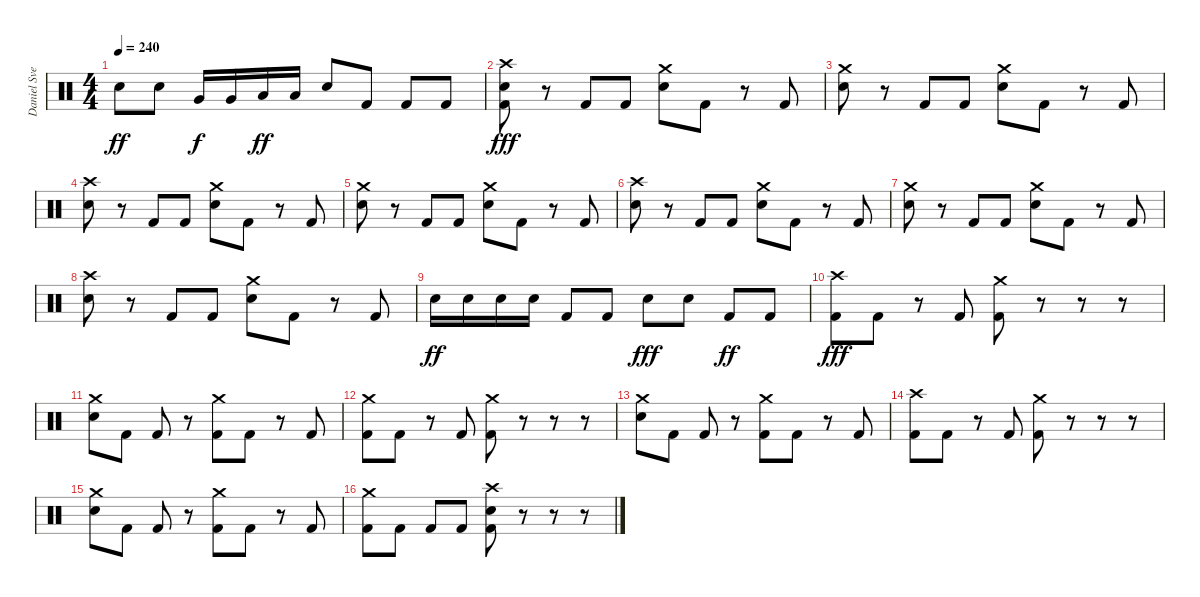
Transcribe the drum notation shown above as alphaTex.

\track ("Daniel Svensson" "Daniel Sve") {instrument percussion}
\staff {score}
\articulation defaults
\ts (4 4)
\tempo 240
\clef neutral
\ks c "Electric Snare (hit)".8{dy ff} "Electric Snare (hit)".8 "Very Low Tom (hit)".16{dy f} "Very Low Tom (hit)".16 "Low Floor Tom (hit)".16{dy ff} "Low Floor Tom (hit)".16 "Electric Snare (hit)".8 "Kick (hit) 2".8 "Kick (hit) 2".8 "Kick (hit) 2".8
|
("Crash high (hit)" "Electric Snare (hit)" "Kick (hit) 2").8{dy fff} r.8 "Kick (hit) 2".8 "Kick (hit) 2".8 ("Crash medium (hit)" "Electric Snare (hit)").8 "Kick (hit) 2".8 r.8 "Kick (hit) 2".8 |
("Crash medium (hit)" "Electric Snare (hit)").8 r.8 "Kick (hit) 2".8 "Kick (hit) 2".8 ("Crash medium (hit)" "Electric Snare (hit)").8 "Kick (hit) 2".8 r.8 "Kick (hit) 2".8 |
("Crash high (hit)" "Electric Snare (hit)").8 r.8 "Kick (hit) 2".8 "Kick (hit) 2".8 ("Crash medium (hit)" "Electric Snare (hit)").8 "Kick (hit) 2".8 r.8 "Kick (hit) 2".8 |
("Crash medium (hit)" "Electric Snare (hit)").8 r.8 "Kick (hit) 2".8 "Kick (hit) 2".8 ("Crash medium (hit)" "Electric Snare (hit)").8 "Kick (hit) 2".8 r.8 "Kick (hit) 2".8 |
("Crash high (hit)" "Electric Snare (hit)").8 r.8 "Kick (hit) 2".8 "Kick (hit) 2".8 ("Crash medium (hit)" "Electric Snare (hit)").8 "Kick (hit) 2".8 r.8 "Kick (hit) 2".8 |
("Crash medium (hit)" "Electric Snare (hit)").8 r.8 "Kick (hit) 2".8 "Kick (hit) 2".8 ("Crash medium (hit)" "Electric Snare (hit)").8 "Kick (hit) 2".8 r.8 "Kick (hit) 2".8 |
("Crash high (hit)" "Electric Snare (hit)").8 r.8 "Kick (hit) 2".8 "Kick (hit) 2".8 ("Crash medium (hit)" "Electric Snare (hit)").8 "Kick (hit) 2".8 r.8 "Kick (hit) 2".8 |
"Electric Snare (hit)".16{dy ff} "Electric Snare (hit)".16 "Electric Snare (hit)".16 "Electric Snare (hit)".16 "Kick (hit) 2".8 "Kick (hit) 2".8 "Electric Snare (hit)".8{dy fff} "Electric Snare (hit)".8 "Kick (hit) 2".8{dy ff} "Kick (hit) 2".8 |
("Crash high (hit)" "Kick (hit) 2").8{dy fff} "Kick (hit) 2".8 r.8 "Kick (hit) 2".8 ("Crash medium (hit)" "Kick (hit) 2").8 r.8 r.8 r.8 |
("Crash medium (hit)" "Electric Snare (hit)").8 "Kick (hit) 2".8 "Kick (hit) 2".8 r.8 ("Crash medium (hit)" "Kick (hit) 2").8 "Kick (hit) 2".8 r.8 "Kick (hit) 2".8 |
("Crash medium (hit)" "Kick (hit) 2").8 "Kick (hit) 2".8 r.8 "Kick (hit) 2".8 ("Crash medium (hit)" "Kick (hit) 2").8 r.8 r.8 r.8 |
("Crash medium (hit)" "Electric Snare (hit)").8 "Kick (hit) 2".8 "Kick (hit) 2".8 r.8 ("Crash medium (hit)" "Kick (hit) 2").8 "Kick (hit) 2".8 r.8 "Kick (hit) 2".8 |
("Crash high (hit)" "Kick (hit) 2").8 "Kick (hit) 2".8 r.8 "Kick (hit) 2".8 ("Crash medium (hit)" "Kick (hit) 2").8 r.8 r.8 r.8 |
("Crash medium (hit)" "Electric Snare (hit)").8 "Kick (hit) 2".8 "Kick (hit) 2".8 r.8 ("Crash medium (hit)" "Kick (hit) 2").8 "Kick (hit) 2".8 r.8 "Kick (hit) 2".8 |
("Crash medium (hit)" "Kick (hit) 2").8 "Kick (hit) 2".8 "Kick (hit) 2".8 "Kick (hit) 2".8 ("Crash high (hit)" "Electric Snare (hit)" "Kick (hit) 2").8 r.8 r.8 r.8
